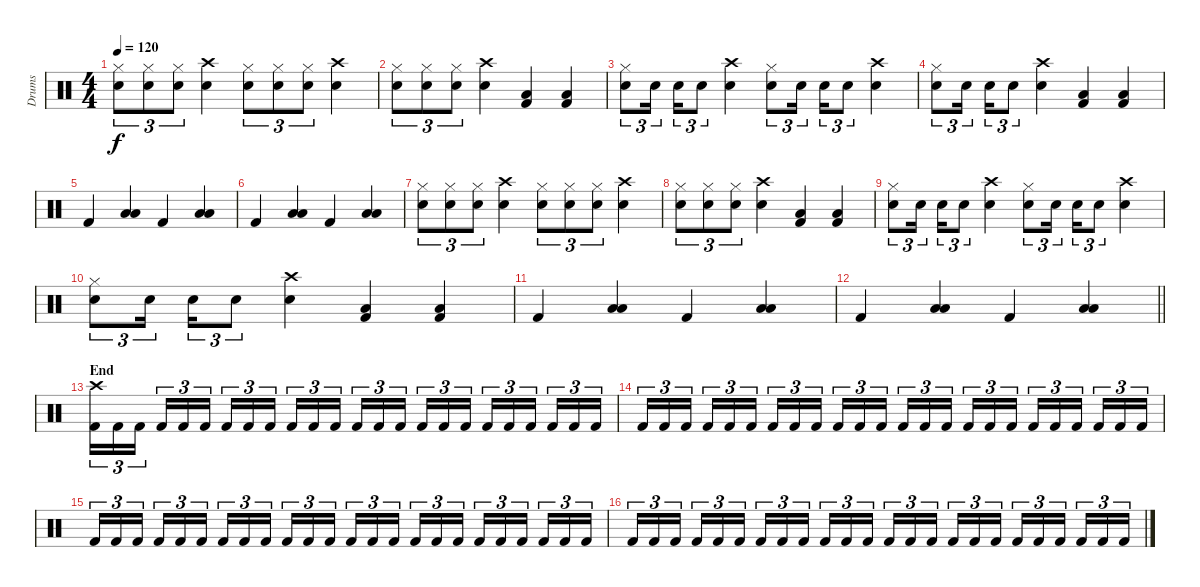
\track ("Drums" "Drums") {instrument percussion}
\staff {score}
\articulation defaults
\ts (4 4)
\tempo 120
\clef neutral
\ks c
("Snare (hit) 2" "Hi-Hat (closed)").8{tu (3 2) dy f} ("Snare (hit) 2" "Hi-Hat (closed)").8{tu (3 2)} ("Snare (hit) 2" "Hi-Hat (closed)").8{tu (3 2)} ("Snare (hit) 2" "Crash high (hit)").4 ("Snare (hit) 2" "Hi-Hat (closed)").8{tu (3 2)} ("Snare (hit) 2" "Hi-Hat (closed)").8{tu (3 2)} ("Snare (hit) 2" "Hi-Hat (closed)").8{tu (3 2)} ("Snare (hit) 2" "Crash high (hit)").4 |
("Snare (hit) 2" "Hi-Hat (closed)").8{tu (3 2)} ("Snare (hit) 2" "Hi-Hat (closed)").8{tu (3 2)} ("Snare (hit) 2" "Hi-Hat (closed)").8{tu (3 2)} ("Snare (hit) 2" "Crash high (hit)").4 ("Low Tom (hit)" "Kick (hit) 2").4 ("Low Tom (hit)" "Kick (hit) 2").4 |
("Snare (hit) 2" "Hi-Hat (closed)").8{tu (3 2)} "Snare (hit) 2".16{tu (3 2) beam splitsecondary} "Snare (hit) 2".16{tu (3 2)} "Snare (hit) 2".8{tu (3 2)} ("Snare (hit) 2" "Crash high (hit)").4 ("Snare (hit) 2" "Hi-Hat (closed)").8{tu (3 2)} "Snare (hit) 2".16{tu (3 2) beam splitsecondary} "Snare (hit) 2".16{tu (3 2)} "Snare (hit) 2".8{tu (3 2)} ("Snare (hit) 2" "Crash high (hit)").4 |
("Snare (hit) 2" "Hi-Hat (closed)").8{tu (3 2)} "Snare (hit) 2".16{tu (3 2) beam splitsecondary} "Snare (hit) 2".16{tu (3 2)} "Snare (hit) 2".8{tu (3 2)} ("Snare (hit) 2" "Crash high (hit)").4 ("Low Tom (hit)" "Kick (hit) 2").4 ("Low Tom (hit)" "Kick (hit) 2").4 |
"Kick (hit) 2".4 ("Low Tom (hit)" "Low Tom (hit)").4 "Kick (hit) 2".4 ("Low Tom (hit)" "Low Tom (hit)").4 |
"Kick (hit) 2".4 ("Low Tom (hit)" "Low Tom (hit)").4 "Kick (hit) 2".4 ("Low Tom (hit)" "Low Tom (hit)").4 |
("Snare (hit) 2" "Hi-Hat (closed)").8{tu (3 2)} ("Snare (hit) 2" "Hi-Hat (closed)").8{tu (3 2)} ("Snare (hit) 2" "Hi-Hat (closed)").8{tu (3 2)} ("Snare (hit) 2" "Crash high (hit)").4 ("Snare (hit) 2" "Hi-Hat (closed)").8{tu (3 2)} ("Snare (hit) 2" "Hi-Hat (closed)").8{tu (3 2)} ("Snare (hit) 2" "Hi-Hat (closed)").8{tu (3 2)} ("Snare (hit) 2" "Crash high (hit)").4 |
("Snare (hit) 2" "Hi-Hat (closed)").8{tu (3 2)} ("Snare (hit) 2" "Hi-Hat (closed)").8{tu (3 2)} ("Snare (hit) 2" "Hi-Hat (closed)").8{tu (3 2)} ("Snare (hit) 2" "Crash high (hit)").4 ("Low Tom (hit)" "Kick (hit) 2").4 ("Low Tom (hit)" "Kick (hit) 2").4 |
("Snare (hit) 2" "Hi-Hat (closed)").8{tu (3 2)} "Snare (hit) 2".16{tu (3 2) beam splitsecondary} "Snare (hit) 2".16{tu (3 2)} "Snare (hit) 2".8{tu (3 2)} ("Snare (hit) 2" "Crash high (hit)").4 ("Snare (hit) 2" "Hi-Hat (closed)").8{tu (3 2)} "Snare (hit) 2".16{tu (3 2) beam splitsecondary} "Snare (hit) 2".16{tu (3 2)} "Snare (hit) 2".8{tu (3 2)} ("Snare (hit) 2" "Crash high (hit)").4 |
("Snare (hit) 2" "Hi-Hat (closed)").8{tu (3 2)} "Snare (hit) 2".16{tu (3 2) beam splitsecondary} "Snare (hit) 2".16{tu (3 2)} "Snare (hit) 2".8{tu (3 2)} ("Snare (hit) 2" "Crash high (hit)").4 ("Low Tom (hit)" "Kick (hit) 2").4 ("Low Tom (hit)" "Kick (hit) 2").4 |
"Kick (hit) 2".4 ("Low Tom (hit)" "Low Tom (hit)").4 "Kick (hit) 2".4 ("Low Tom (hit)" "Low Tom (hit)").4 |
\barLineRight lightlight "Kick (hit) 2".4
("Low Tom (hit)" "Low Tom (hit)").4 "Kick (hit) 2".4 ("Low Tom (hit)" "Low Tom (hit)").4 |
\section ("" "End")
("Crash high (hit)" "Kick (hit) 2").16{tu (3 2)} "Kick (hit) 2".16{tu (3 2)} "Kick (hit) 2".16{tu (3 2) beam splitsecondary} "Kick (hit) 2".16{tu (3 2)} "Kick (hit) 2".16{tu (3 2)} "Kick (hit) 2".16{tu (3 2)} "Kick (hit) 2".16{tu (3 2)} "Kick (hit) 2".16{tu (3 2)} "Kick (hit) 2".16{tu (3 2) beam splitsecondary} "Kick (hit) 2".16{tu (3 2)} "Kick (hit) 2".16{tu (3 2)} "Kick (hit) 2".16{tu (3 2)} "Kick (hit) 2".16{tu (3 2)} "Kick (hit) 2".16{tu (3 2)} "Kick (hit) 2".16{tu (3 2) beam splitsecondary} "Kick (hit) 2".16{tu (3 2)} "Kick (hit) 2".16{tu (3 2)} "Kick (hit) 2".16{tu (3 2)} "Kick (hit) 2".16{tu (3 2)} "Kick (hit) 2".16{tu (3 2)} "Kick (hit) 2".16{tu (3 2) beam splitsecondary} "Kick (hit) 2".16{tu (3 2)} "Kick (hit) 2".16{tu (3 2)} "Kick (hit) 2".16{tu (3 2)} |
"Kick (hit) 2".16{tu (3 2)} "Kick (hit) 2".16{tu (3 2)} "Kick (hit) 2".16{tu (3 2) beam splitsecondary} "Kick (hit) 2".16{tu (3 2)} "Kick (hit) 2".16{tu (3 2)} "Kick (hit) 2".16{tu (3 2)} "Kick (hit) 2".16{tu (3 2)} "Kick (hit) 2".16{tu (3 2)} "Kick (hit) 2".16{tu (3 2) beam splitsecondary} "Kick (hit) 2".16{tu (3 2)} "Kick (hit) 2".16{tu (3 2)} "Kick (hit) 2".16{tu (3 2)} "Kick (hit) 2".16{tu (3 2)} "Kick (hit) 2".16{tu (3 2)} "Kick (hit) 2".16{tu (3 2) beam splitsecondary} "Kick (hit) 2".16{tu (3 2)} "Kick (hit) 2".16{tu (3 2)} "Kick (hit) 2".16{tu (3 2)} "Kick (hit) 2".16{tu (3 2)} "Kick (hit) 2".16{tu (3 2)} "Kick (hit) 2".16{tu (3 2) beam splitsecondary} "Kick (hit) 2".16{tu (3 2)} "Kick (hit) 2".16{tu (3 2)} "Kick (hit) 2".16{tu (3 2)} |
"Kick (hit) 2".16{tu (3 2)} "Kick (hit) 2".16{tu (3 2)} "Kick (hit) 2".16{tu (3 2) beam splitsecondary} "Kick (hit) 2".16{tu (3 2)} "Kick (hit) 2".16{tu (3 2)} "Kick (hit) 2".16{tu (3 2)} "Kick (hit) 2".16{tu (3 2)} "Kick (hit) 2".16{tu (3 2)} "Kick (hit) 2".16{tu (3 2) beam splitsecondary} "Kick (hit) 2".16{tu (3 2)} "Kick (hit) 2".16{tu (3 2)} "Kick (hit) 2".16{tu (3 2)} "Kick (hit) 2".16{tu (3 2)} "Kick (hit) 2".16{tu (3 2)} "Kick (hit) 2".16{tu (3 2) beam splitsecondary} "Kick (hit) 2".16{tu (3 2)} "Kick (hit) 2".16{tu (3 2)} "Kick (hit) 2".16{tu (3 2)} "Kick (hit) 2".16{tu (3 2)} "Kick (hit) 2".16{tu (3 2)} "Kick (hit) 2".16{tu (3 2) beam splitsecondary} "Kick (hit) 2".16{tu (3 2)} "Kick (hit) 2".16{tu (3 2)} "Kick (hit) 2".16{tu (3 2)} |
"Kick (hit) 2".16{tu (3 2)} "Kick (hit) 2".16{tu (3 2)} "Kick (hit) 2".16{tu (3 2) beam splitsecondary} "Kick (hit) 2".16{tu (3 2)} "Kick (hit) 2".16{tu (3 2)} "Kick (hit) 2".16{tu (3 2)} "Kick (hit) 2".16{tu (3 2)} "Kick (hit) 2".16{tu (3 2)} "Kick (hit) 2".16{tu (3 2) beam splitsecondary} "Kick (hit) 2".16{tu (3 2)} "Kick (hit) 2".16{tu (3 2)} "Kick (hit) 2".16{tu (3 2)} "Kick (hit) 2".16{tu (3 2)} "Kick (hit) 2".16{tu (3 2)} "Kick (hit) 2".16{tu (3 2) beam splitsecondary} "Kick (hit) 2".16{tu (3 2)} "Kick (hit) 2".16{tu (3 2)} "Kick (hit) 2".16{tu (3 2)} "Kick (hit) 2".16{tu (3 2)} "Kick (hit) 2".16{tu (3 2)} "Kick (hit) 2".16{tu (3 2) beam splitsecondary} "Kick (hit) 2".16{tu (3 2)} "Kick (hit) 2".16{tu (3 2)} "Kick (hit) 2".16{tu (3 2)}
